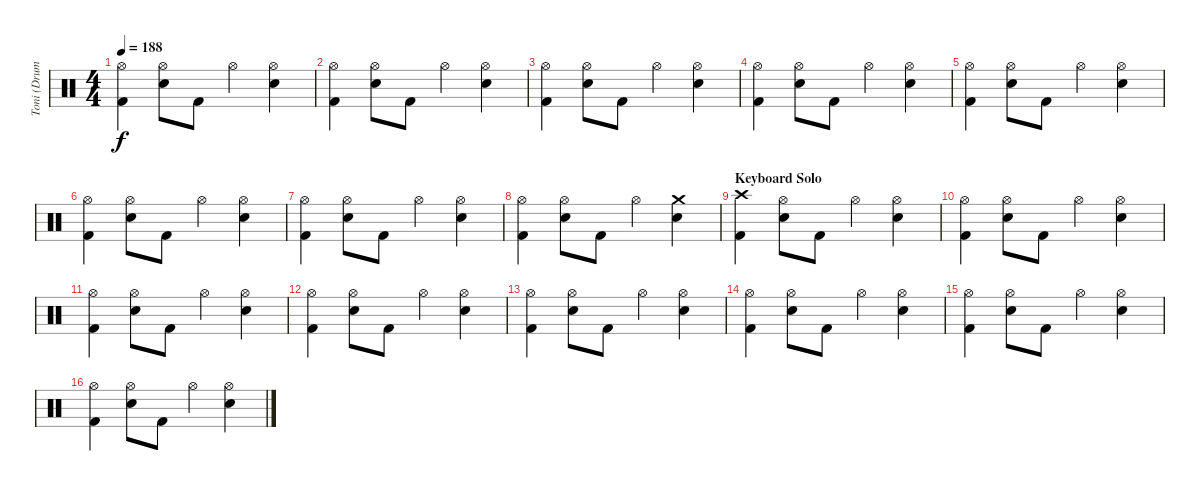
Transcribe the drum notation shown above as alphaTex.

\track ("Toni (Drums)" "Toni (Drum") {instrument percussion}
\staff {score}
\articulation defaults
\ts (4 4)
\tempo 188
\clef neutral
\ks c
("Hi-Hat (open)" "Kick (hit) 2").4{dy f} ("Hi-Hat (open)" "Electric Snare (hit)").8 "Kick (hit) 2".8 "Hi-Hat (open)".4 ("Hi-Hat (open)" "Electric Snare (hit)").4 |
("Hi-Hat (open)" "Kick (hit) 2").4 ("Hi-Hat (open)" "Electric Snare (hit)").8 "Kick (hit) 2".8 "Hi-Hat (open)".4 ("Hi-Hat (open)" "Electric Snare (hit)").4 |
("Hi-Hat (open)" "Kick (hit) 2").4 ("Hi-Hat (open)" "Electric Snare (hit)").8 "Kick (hit) 2".8 "Hi-Hat (open)".4 ("Hi-Hat (open)" "Electric Snare (hit)").4 |
("Hi-Hat (open)" "Kick (hit) 2").4 ("Hi-Hat (open)" "Electric Snare (hit)").8 "Kick (hit) 2".8 "Hi-Hat (open)".4 ("Hi-Hat (open)" "Electric Snare (hit)").4 |
("Hi-Hat (open)" "Kick (hit) 2").4 ("Hi-Hat (open)" "Electric Snare (hit)").8 "Kick (hit) 2".8 "Hi-Hat (open)".4 ("Hi-Hat (open)" "Electric Snare (hit)").4 |
("Hi-Hat (open)" "Kick (hit) 2").4 ("Hi-Hat (open)" "Electric Snare (hit)").8 "Kick (hit) 2".8 "Hi-Hat (open)".4 ("Hi-Hat (open)" "Electric Snare (hit)").4 |
("Hi-Hat (open)" "Kick (hit) 2").4 ("Hi-Hat (open)" "Electric Snare (hit)").8 "Kick (hit) 2".8 "Hi-Hat (open)".4 ("Hi-Hat (open)" "Electric Snare (hit)").4 |
("Hi-Hat (open)" "Kick (hit) 2").4 ("Hi-Hat (open)" "Electric Snare (hit)").8 "Kick (hit) 2".8 "Hi-Hat (open)".4 ("Crash medium (hit)" "Electric Snare (hit)").4 |
\section ("" "Keyboard Solo")
("Crash high (hit)" "Kick (hit) 2").4 ("Hi-Hat (open)" "Electric Snare (hit)").8 "Kick (hit) 2".8 "Hi-Hat (open)".4 ("Hi-Hat (open)" "Electric Snare (hit)").4 |
("Hi-Hat (open)" "Kick (hit) 2").4 ("Hi-Hat (open)" "Electric Snare (hit)").8 "Kick (hit) 2".8 "Hi-Hat (open)".4 ("Hi-Hat (open)" "Electric Snare (hit)").4 |
("Hi-Hat (open)" "Kick (hit) 2").4 ("Hi-Hat (open)" "Electric Snare (hit)").8 "Kick (hit) 2".8 "Hi-Hat (open)".4 ("Hi-Hat (open)" "Electric Snare (hit)").4 |
("Hi-Hat (open)" "Kick (hit) 2").4 ("Hi-Hat (open)" "Electric Snare (hit)").8 "Kick (hit) 2".8 "Hi-Hat (open)".4 ("Hi-Hat (open)" "Electric Snare (hit)").4 |
("Hi-Hat (open)" "Kick (hit) 2").4 ("Hi-Hat (open)" "Electric Snare (hit)").8 "Kick (hit) 2".8 "Hi-Hat (open)".4 ("Hi-Hat (open)" "Electric Snare (hit)").4 |
("Hi-Hat (open)" "Kick (hit) 2").4 ("Hi-Hat (open)" "Electric Snare (hit)").8 "Kick (hit) 2".8 "Hi-Hat (open)".4 ("Hi-Hat (open)" "Electric Snare (hit)").4 |
("Hi-Hat (open)" "Kick (hit) 2").4 ("Hi-Hat (open)" "Electric Snare (hit)").8 "Kick (hit) 2".8 "Hi-Hat (open)".4 ("Hi-Hat (open)" "Electric Snare (hit)").4 |
("Hi-Hat (open)" "Kick (hit) 2").4 ("Hi-Hat (open)" "Electric Snare (hit)").8 "Kick (hit) 2".8 "Hi-Hat (open)".4 ("Hi-Hat (open)" "Electric Snare (hit)").4
